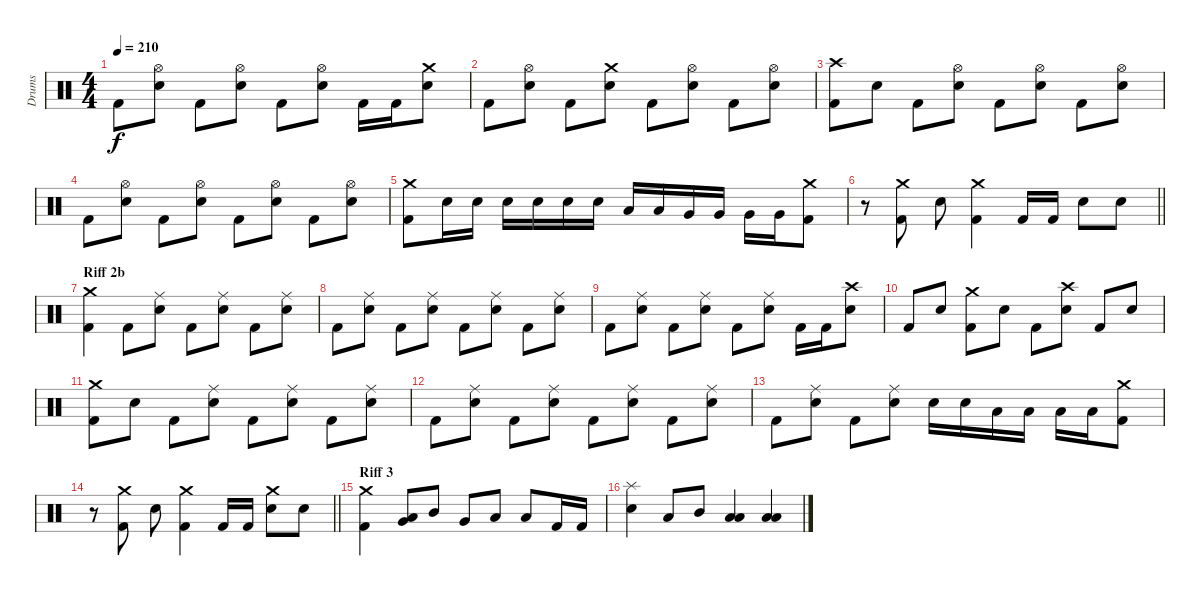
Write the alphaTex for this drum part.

\track ("Drums" "Drums") {instrument percussion}
\staff {score}
\articulation defaults
\ts (4 4)
\tempo 210
\clef neutral
\ks c "Kick (hit) 2".8{dy f}
("Electric Snare (hit)" "Hi-Hat (open)").8 "Kick (hit) 2".8 ("Electric Snare (hit)" "Hi-Hat (open)").8 "Kick (hit) 2".8 ("Electric Snare (hit)" "Hi-Hat (open)").8 "Kick (hit) 2".16 "Kick (hit) 2".16 ("Electric Snare (hit)" "Crash medium (hit)").8 |
"Kick (hit) 2".8 ("Electric Snare (hit)" "Hi-Hat (open)").8 "Kick (hit) 2".8 ("Electric Snare (hit)" "Crash medium (hit)").8 "Kick (hit) 2".8 ("Electric Snare (hit)" "Hi-Hat (open)").8 "Kick (hit) 2".8 ("Electric Snare (hit)" "Hi-Hat (open)").8 |
("Kick (hit) 2" "Crash high (hit)").8 "Electric Snare (hit)".8 "Kick (hit) 2".8 ("Electric Snare (hit)" "Hi-Hat (open)").8 "Kick (hit) 2".8 ("Electric Snare (hit)" "Hi-Hat (open)").8 "Kick (hit) 2".8 ("Electric Snare (hit)" "Hi-Hat (open)").8 |
"Kick (hit) 2".8 ("Electric Snare (hit)" "Hi-Hat (open)").8 "Kick (hit) 2".8 ("Electric Snare (hit)" "Hi-Hat (open)").8 "Kick (hit) 2".8 ("Electric Snare (hit)" "Hi-Hat (open)").8 "Kick (hit) 2".8 ("Electric Snare (hit)" "Hi-Hat (open)").8 |
("Crash medium (hit)" "Kick (hit) 2").8 "Electric Snare (hit)".16 "Electric Snare (hit)".16 "Electric Snare (hit)".16 "Electric Snare (hit)".16 "Electric Snare (hit)".16 "Electric Snare (hit)".16 "Low Tom (hit)".16 "Low Tom (hit)".16 "Very Low Tom (hit)".16 "Very Low Tom (hit)".16 "Very Low Tom (hit)".16 "Very Low Tom (hit)".16 ("Kick (hit) 2" "Crash medium (hit)").8 |
\barLineRight lightlight
r.8 ("Kick (hit) 2" "Crash medium (hit)").8 "Electric Snare (hit)".8 ("Kick (hit) 2" "Crash medium (hit)").4 "Kick (hit) 2".16 "Kick (hit) 2".16 "Electric Snare (hit)".8 "Electric Snare (hit)".8 |
\section ("" "Riff 2b")
("Crash medium (hit)" "Kick (hit) 2").4 "Kick (hit) 2".8 ("Electric Snare (hit)" "Ride (middle)").8 "Kick (hit) 2".8 ("Electric Snare (hit)" "Ride (middle)").8 "Kick (hit) 2".8 ("Electric Snare (hit)" "Ride (middle)").8 |
"Kick (hit) 2".8 ("Electric Snare (hit)" "Ride (middle)").8 "Kick (hit) 2".8 ("Electric Snare (hit)" "Ride (middle)").8 "Kick (hit) 2".8 ("Electric Snare (hit)" "Ride (middle)").8 "Kick (hit) 2".8 ("Electric Snare (hit)" "Ride (middle)").8 |
"Kick (hit) 2".8 ("Electric Snare (hit)" "Ride (middle)").8 "Kick (hit) 2".8 ("Electric Snare (hit)" "Ride (middle)").8 "Kick (hit) 2".8 ("Electric Snare (hit)" "Ride (middle)").8 "Kick (hit) 2".16 "Kick (hit) 2".16 ("Electric Snare (hit)" "Crash high (hit)").8 |
"Kick (hit) 2".8 "Electric Snare (hit)".8 ("Crash medium (hit)" "Kick (hit) 2").8 "Electric Snare (hit)".8 "Kick (hit) 2".8 ("Crash high (hit)" "Electric Snare (hit)").8 "Kick (hit) 2".8 "Electric Snare (hit)".8 |
("Kick (hit) 2" "Crash medium (hit)").8 "Electric Snare (hit)".8 "Kick (hit) 2".8 ("Electric Snare (hit)" "Ride (middle)").8 "Kick (hit) 2".8 ("Electric Snare (hit)" "Ride (middle)").8 "Kick (hit) 2".8 ("Electric Snare (hit)" "Ride (middle)").8 |
"Kick (hit) 2".8 ("Electric Snare (hit)" "Ride (middle)").8 "Kick (hit) 2".8 ("Electric Snare (hit)" "Ride (middle)").8 "Kick (hit) 2".8 ("Electric Snare (hit)" "Ride (middle)").8 "Kick (hit) 2".8 ("Electric Snare (hit)" "Ride (middle)").8 |
"Kick (hit) 2".8 ("Electric Snare (hit)" "Ride (middle)").8 "Kick (hit) 2".8 ("Electric Snare (hit)" "Ride (middle)").8 "Electric Snare (hit)".16 "Electric Snare (hit)".16 "Low Tom (hit)".16 "Low Tom (hit)".16 "Low Floor Tom (hit)".16 "Low Floor Tom (hit)".16 ("Kick (hit) 2" "Crash medium (hit)").8 |
\barLineRight lightlight
r.8 ("Crash medium (hit)" "Kick (hit) 2").8 "Electric Snare (hit)".8 ("Crash medium (hit)" "Kick (hit) 2").4 "Kick (hit) 2".16 "Kick (hit) 2".16 ("Electric Snare (hit)" "Crash medium (hit)").8 "Electric Snare (hit)".8 |
\section ("" "Riff 3")
("Crash medium (hit)" "Kick (hit) 2").4 ("Very Low Tom (hit)" "Low Floor Tom (hit)").8 "Mid Tom (hit)".8 "Very Low Tom (hit)".8 "Low Floor Tom (hit)".8 "Low Floor Tom (hit)".8 "Kick (hit) 2".16 "Kick (hit) 2".16 |
("Splash (hit)" "Electric Snare (hit)").4 "Low Floor Tom (hit)".8 "Mid Tom (hit)".8 ("Low Tom (hit)" "Low Floor Tom (hit)").4 ("Low Tom (hit)" "Low Floor Tom (hit)").4
